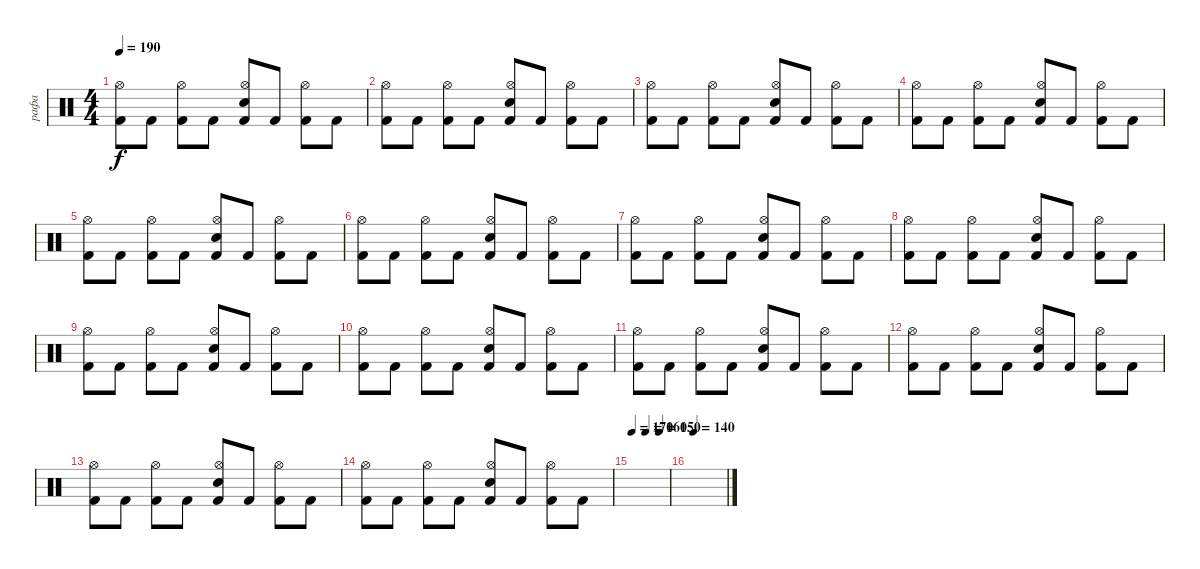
\track ("рафа" "рафа") {instrument percussion}
\staff {score}
\articulation defaults
\ts (4 4)
\tempo 190
\clef neutral
\ks c
("Kick (hit) 2" "Hi-Hat (open)").8{dy f} "Kick (hit) 2".8 ("Kick (hit) 2" "Hi-Hat (open)").8 "Kick (hit) 2".8 ("Kick (hit) 2" "Snare (hit) 2" "Hi-Hat (open)").8 "Kick (hit) 2".8 ("Kick (hit) 2" "Hi-Hat (open)").8 "Kick (hit) 2".8 |
("Kick (hit) 2" "Hi-Hat (open)").8 "Kick (hit) 2".8 ("Kick (hit) 2" "Hi-Hat (open)").8 "Kick (hit) 2".8 ("Kick (hit) 2" "Snare (hit) 2" "Hi-Hat (open)").8 "Kick (hit) 2".8 ("Kick (hit) 2" "Hi-Hat (open)").8 "Kick (hit) 2".8 |
("Kick (hit) 2" "Hi-Hat (open)").8 "Kick (hit) 2".8 ("Kick (hit) 2" "Hi-Hat (open)").8 "Kick (hit) 2".8 ("Kick (hit) 2" "Snare (hit) 2" "Hi-Hat (open)").8 "Kick (hit) 2".8 ("Kick (hit) 2" "Hi-Hat (open)").8 "Kick (hit) 2".8 |
("Kick (hit) 2" "Hi-Hat (open)").8 "Kick (hit) 2".8 ("Kick (hit) 2" "Hi-Hat (open)").8 "Kick (hit) 2".8 ("Kick (hit) 2" "Snare (hit) 2" "Hi-Hat (open)").8 "Kick (hit) 2".8 ("Kick (hit) 2" "Hi-Hat (open)").8 "Kick (hit) 2".8 |
("Kick (hit) 2" "Hi-Hat (open)").8 "Kick (hit) 2".8 ("Kick (hit) 2" "Hi-Hat (open)").8 "Kick (hit) 2".8 ("Kick (hit) 2" "Snare (hit) 2" "Hi-Hat (open)").8 "Kick (hit) 2".8 ("Kick (hit) 2" "Hi-Hat (open)").8 "Kick (hit) 2".8 |
("Kick (hit) 2" "Hi-Hat (open)").8 "Kick (hit) 2".8 ("Kick (hit) 2" "Hi-Hat (open)").8 "Kick (hit) 2".8 ("Kick (hit) 2" "Snare (hit) 2" "Hi-Hat (open)").8 "Kick (hit) 2".8 ("Kick (hit) 2" "Hi-Hat (open)").8 "Kick (hit) 2".8 |
("Kick (hit) 2" "Hi-Hat (open)").8 "Kick (hit) 2".8 ("Kick (hit) 2" "Hi-Hat (open)").8 "Kick (hit) 2".8 ("Kick (hit) 2" "Snare (hit) 2" "Hi-Hat (open)").8 "Kick (hit) 2".8 ("Kick (hit) 2" "Hi-Hat (open)").8 "Kick (hit) 2".8 |
("Kick (hit) 2" "Hi-Hat (open)").8 "Kick (hit) 2".8 ("Kick (hit) 2" "Hi-Hat (open)").8 "Kick (hit) 2".8 ("Kick (hit) 2" "Snare (hit) 2" "Hi-Hat (open)").8 "Kick (hit) 2".8 ("Kick (hit) 2" "Hi-Hat (open)").8 "Kick (hit) 2".8 |
("Kick (hit) 2" "Hi-Hat (open)").8 "Kick (hit) 2".8 ("Kick (hit) 2" "Hi-Hat (open)").8 "Kick (hit) 2".8 ("Kick (hit) 2" "Snare (hit) 2" "Hi-Hat (open)").8 "Kick (hit) 2".8 ("Kick (hit) 2" "Hi-Hat (open)").8 "Kick (hit) 2".8 |
("Kick (hit) 2" "Hi-Hat (open)").8 "Kick (hit) 2".8 ("Kick (hit) 2" "Hi-Hat (open)").8 "Kick (hit) 2".8 ("Kick (hit) 2" "Snare (hit) 2" "Hi-Hat (open)").8 "Kick (hit) 2".8 ("Kick (hit) 2" "Hi-Hat (open)").8 "Kick (hit) 2".8 |
("Kick (hit) 2" "Hi-Hat (open)").8 "Kick (hit) 2".8 ("Kick (hit) 2" "Hi-Hat (open)").8 "Kick (hit) 2".8 ("Kick (hit) 2" "Snare (hit) 2" "Hi-Hat (open)").8 "Kick (hit) 2".8 ("Kick (hit) 2" "Hi-Hat (open)").8 "Kick (hit) 2".8 |
("Kick (hit) 2" "Hi-Hat (open)").8 "Kick (hit) 2".8 ("Kick (hit) 2" "Hi-Hat (open)").8 "Kick (hit) 2".8 ("Kick (hit) 2" "Snare (hit) 2" "Hi-Hat (open)").8 "Kick (hit) 2".8 ("Kick (hit) 2" "Hi-Hat (open)").8 "Kick (hit) 2".8 |
("Kick (hit) 2" "Hi-Hat (open)").8 "Kick (hit) 2".8 ("Kick (hit) 2" "Hi-Hat (open)").8 "Kick (hit) 2".8 ("Kick (hit) 2" "Snare (hit) 2" "Hi-Hat (open)").8 "Kick (hit) 2".8 ("Kick (hit) 2" "Hi-Hat (open)").8 "Kick (hit) 2".8 |
("Kick (hit) 2" "Hi-Hat (open)").8 "Kick (hit) 2".8 ("Kick (hit) 2" "Hi-Hat (open)").8 "Kick (hit) 2".8 ("Kick (hit) 2" "Snare (hit) 2" "Hi-Hat (open)").8 "Kick (hit) 2".8 ("Kick (hit) 2" "Hi-Hat (open)").8 "Kick (hit) 2".8 |
\tempo 170
\tempo (160 0.375)
\tempo (150 0.75)
|
\tempo (140 0.125)
